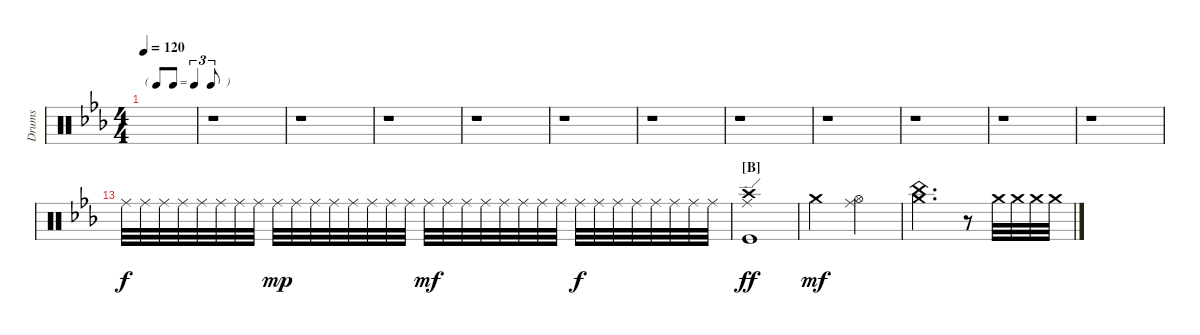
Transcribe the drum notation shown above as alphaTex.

\bracketExtendMode nobrackets
\otherSystemsTrackNameOrientation horizontal
\defaultBarNumberDisplay FirstOfSystem
\track ("Drumkit" "Drums") {instrument percussion}
\staff {score}
\articulation defaults
\ts (4 4)
\tf triplet8th
\tempo 120
\clef neutral
\ks cminor
|
r.1 |
r.1 |
r.1 |
r.1 |
r.1 |
r.1 |
r.1 |
r.1 |
r.1 |
r.1 |
r.1 |
"Ride (middle)".32 "Ride (middle)".32 "Ride (middle)".32 "Ride (middle)".32 "Ride (middle)".32 "Ride (middle)".32 "Ride (middle)".32 "Ride (middle)".32 "Ride (middle)".32{dy mp} "Ride (middle)".32 "Ride (middle)".32 "Ride (middle)".32 "Ride (middle)".32 "Ride (middle)".32 "Ride (middle)".32 "Ride (middle)".32 "Ride (middle)".32{dy mf} "Ride (middle)".32 "Ride (middle)".32 "Ride (middle)".32 "Ride (middle)".32 "Ride (middle)".32 "Ride (middle)".32 "Ride (middle)".32 "Ride (middle)".32{dy f} "Ride (middle)".32 "Ride (middle)".32 "Ride (middle)".32 "Ride (middle)".32 "Ride (middle)".32 "Ride (middle)".32 "Ride (middle)".32 |
\section ("B" "")
("Kick (hit)" "Ride (edge)" "Crash high (hit)").1{dy ff} |
"Crash medium (hit)".2{dy mf} ("Hi-Hat (open)" "Ride (middle)").2 |
("Crash medium (hit)" "China (hit)").2{d} r.8 "Crash medium (hit)".32 "Crash medium (hit)".32 "Crash medium (hit)".32 "Crash medium (hit)".32
